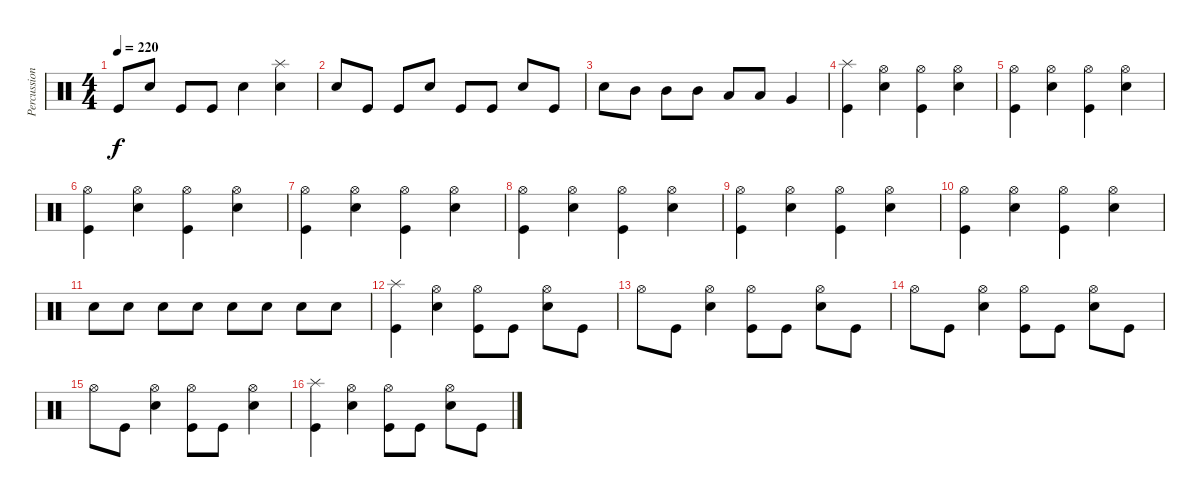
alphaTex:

\track ("Percussions" "Percussion") {instrument percussion}
\staff {score}
\articulation defaults
\ts (4 4)
\tempo 220
\clef neutral
\ks c "Kick (hit)".8{dy f} "Electric Snare (hit)".8 "Kick (hit)".8 "Kick (hit)".8 "Electric Snare (hit)".4
("Electric Snare (hit)" "Splash (hit)").4 |
"Electric Snare (hit)".8 "Kick (hit)".8 "Kick (hit)".8 "Electric Snare (hit)".8 "Kick (hit)".8 "Kick (hit)".8 "Electric Snare (hit)".8 "Kick (hit)".8 |
"Electric Snare (hit)".8 "Mid Tom (hit)".8 "Mid Tom (hit)".8 "Mid Tom (hit)".8 "Low Tom (hit)".8 "Low Tom (hit)".8 "Very Low Tom (hit)".4 |
("Kick (hit)" "Splash (hit)").4 ("Electric Snare (hit)" "Hi-Hat (open)").4 ("Kick (hit)" "Hi-Hat (open)").4 ("Electric Snare (hit)" "Hi-Hat (open)").4 |
("Kick (hit)" "Hi-Hat (open)").4 ("Electric Snare (hit)" "Hi-Hat (open)").4 ("Kick (hit)" "Hi-Hat (open)").4 ("Electric Snare (hit)" "Hi-Hat (open)").4 |
("Kick (hit)" "Hi-Hat (open)").4 ("Electric Snare (hit)" "Hi-Hat (open)").4 ("Kick (hit)" "Hi-Hat (open)").4 ("Electric Snare (hit)" "Hi-Hat (open)").4 |
("Kick (hit)" "Hi-Hat (open)").4 ("Electric Snare (hit)" "Hi-Hat (open)").4 ("Kick (hit)" "Hi-Hat (open)").4 ("Electric Snare (hit)" "Hi-Hat (open)").4 |
("Kick (hit)" "Hi-Hat (open)").4 ("Electric Snare (hit)" "Hi-Hat (open)").4 ("Kick (hit)" "Hi-Hat (open)").4 ("Electric Snare (hit)" "Hi-Hat (open)").4 |
("Kick (hit)" "Hi-Hat (open)").4 ("Electric Snare (hit)" "Hi-Hat (open)").4 ("Kick (hit)" "Hi-Hat (open)").4 ("Electric Snare (hit)" "Hi-Hat (open)").4 |
("Kick (hit)" "Hi-Hat (open)").4 ("Electric Snare (hit)" "Hi-Hat (open)").4 ("Kick (hit)" "Hi-Hat (open)").4 ("Electric Snare (hit)" "Hi-Hat (open)").4 |
"Electric Snare (hit)".8 "Electric Snare (hit)".8 "Electric Snare (hit)".8 "Electric Snare (hit)".8 "Electric Snare (hit)".8 "Electric Snare (hit)".8 "Electric Snare (hit)".8 "Electric Snare (hit)".8 |
("Kick (hit)" "Splash (hit)").4 ("Electric Snare (hit)" "Hi-Hat (open)").4 ("Kick (hit)" "Hi-Hat (open)").8 "Kick (hit)".8 ("Electric Snare (hit)" "Hi-Hat (open)").8 "Kick (hit)".8 |
"Hi-Hat (open)".8 "Kick (hit)".8 ("Electric Snare (hit)" "Hi-Hat (open)").4 ("Kick (hit)" "Hi-Hat (open)").8 "Kick (hit)".8 ("Electric Snare (hit)" "Hi-Hat (open)").8 "Kick (hit)".8 |
"Hi-Hat (open)".8 "Kick (hit)".8 ("Electric Snare (hit)" "Hi-Hat (open)").4 ("Kick (hit)" "Hi-Hat (open)").8 "Kick (hit)".8 ("Electric Snare (hit)" "Hi-Hat (open)").8 "Kick (hit)".8 |
"Hi-Hat (open)".8 "Kick (hit)".8 ("Electric Snare (hit)" "Hi-Hat (open)").4 ("Kick (hit)" "Hi-Hat (open)").8 "Kick (hit)".8 ("Electric Snare (hit)" "Hi-Hat (open)").4 |
("Kick (hit)" "Splash (hit)").4 ("Electric Snare (hit)" "Hi-Hat (open)").4 ("Kick (hit)" "Hi-Hat (open)").8 "Kick (hit)".8 ("Electric Snare (hit)" "Hi-Hat (open)").8 "Kick (hit)".8
